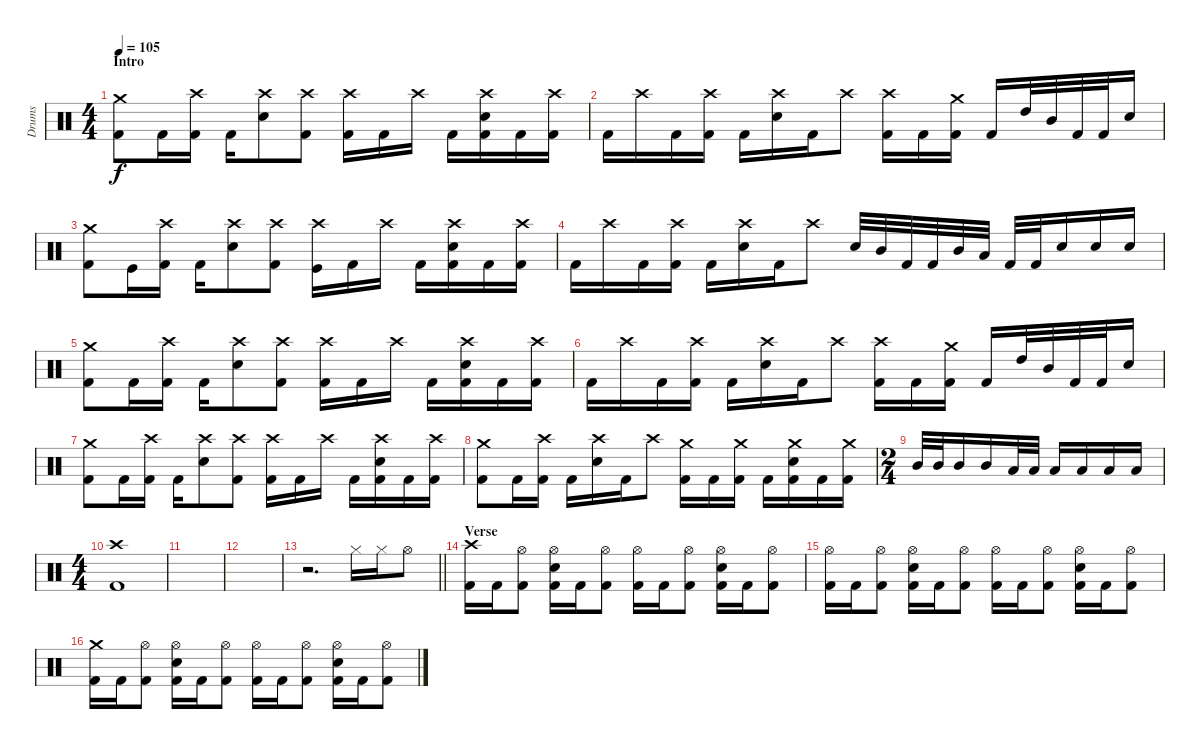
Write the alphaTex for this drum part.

\track ("Drums" "Drums") {instrument percussion}
\staff {score}
\articulation defaults
\ts (4 4)
\section ("" "Intro")
\tempo 105
\clef neutral
\ks c
("Crash medium (hit)" "Kick (hit) 2").8{dy f} "Kick (hit) 2".16 ("Crash high (hit)" "Kick (hit) 2").16 "Kick (hit) 2".16 ("Crash high (hit)" "Electric Snare (hit)").8 ("Crash high (hit)" "Kick (hit) 2").8 ("Crash high (hit)" "Kick (hit) 2").16 "Kick (hit) 2".16 "Crash high (hit)".16 "Kick (hit) 2".16 ("Crash high (hit)" "Electric Snare (hit)" "Kick (hit) 2").16 "Kick (hit) 2".16 ("Crash high (hit)" "Kick (hit) 2").16 |
"Kick (hit) 2".16 "Crash high (hit)".16 "Kick (hit) 2".16 ("Crash high (hit)" "Kick (hit) 2").16 "Kick (hit) 2".16 ("Crash high (hit)" "Electric Snare (hit)").16 "Kick (hit) 2".16 "Crash high (hit)".8 ("Crash high (hit)" "Kick (hit) 2").16 "Kick (hit) 2".16 ("Crash medium (hit)" "Kick (hit) 2").16 "Kick (hit) 2".16 "High Tom (hit)".32 "Mid Tom (hit)".32 "Kick (hit) 2".32 "Kick (hit) 2".32 "Electric Snare (hit)".16 |
("Crash medium (hit)" "Kick (hit) 2").8 "Kick (hit)".16 ("Crash high (hit)" "Kick (hit) 2").16 "Kick (hit) 2".16 ("Crash high (hit)" "Electric Snare (hit)").8 ("Crash high (hit)" "Kick (hit) 2").8 ("Crash high (hit)" "Kick (hit)").16 "Kick (hit) 2".16 "Crash high (hit)".16 "Kick (hit) 2".16 ("Crash high (hit)" "Electric Snare (hit)" "Kick (hit) 2").16 "Kick (hit) 2".16 ("Crash high (hit)" "Kick (hit) 2").16 |
"Kick (hit) 2".16 "Crash high (hit)".16 "Kick (hit) 2".16 ("Crash high (hit)" "Kick (hit) 2").16 "Kick (hit) 2".16 ("Crash high (hit)" "Electric Snare (hit)").16 "Kick (hit) 2".16 "Crash high (hit)".8 "Electric Snare (hit)".32 "Mid Tom (hit)".32 "Kick (hit) 2".32 "Kick (hit) 2".32 "Mid Tom (hit)".32 "Low Tom (hit)".32 "Kick (hit) 2".32 "Kick (hit) 2".32 "Electric Snare (hit)".16 "Electric Snare (hit)".16 "Electric Snare (hit)".16 |
("Crash medium (hit)" "Kick (hit) 2").8 "Kick (hit) 2".16 ("Crash high (hit)" "Kick (hit) 2").16 "Kick (hit) 2".16 ("Crash high (hit)" "Electric Snare (hit)").8 ("Crash high (hit)" "Kick (hit) 2").8 ("Crash high (hit)" "Kick (hit) 2").16 "Kick (hit) 2".16 "Crash high (hit)".16 "Kick (hit) 2".16 ("Crash high (hit)" "Electric Snare (hit)" "Kick (hit) 2").16 "Kick (hit) 2".16 ("Crash high (hit)" "Kick (hit) 2").16 |
"Kick (hit) 2".16 "Crash high (hit)".16 "Kick (hit) 2".16 ("Crash high (hit)" "Kick (hit) 2").16 "Kick (hit) 2".16 ("Crash high (hit)" "Electric Snare (hit)").16 "Kick (hit) 2".16 "Crash high (hit)".8 ("Crash high (hit)" "Kick (hit) 2").16 "Kick (hit) 2".16 ("Crash medium (hit)" "Kick (hit) 2").16 "Kick (hit) 2".16 "High Tom (hit)".32 "Mid Tom (hit)".32 "Kick (hit) 2".32 "Kick (hit) 2".32 "Electric Snare (hit)".16 |
("Crash medium (hit)" "Kick (hit) 2").8 "Kick (hit) 2".16 ("Crash high (hit)" "Kick (hit) 2").16 "Kick (hit) 2".16 ("Crash high (hit)" "Electric Snare (hit)").8 ("Crash high (hit)" "Kick (hit) 2").8 ("Crash high (hit)" "Kick (hit) 2").16 "Kick (hit) 2".16 "Crash high (hit)".16 "Kick (hit) 2".16 ("Crash high (hit)" "Electric Snare (hit)" "Kick (hit) 2").16 "Kick (hit) 2".16 ("Crash high (hit)" "Kick (hit) 2").16 |
("Crash medium (hit)" "Kick (hit) 2").8 "Kick (hit) 2".16 ("Crash high (hit)" "Kick (hit) 2").16 "Kick (hit) 2".16 ("Crash high (hit)" "Electric Snare (hit)").16 "Kick (hit) 2".16 "Crash high (hit)".8 ("Crash medium (hit)" "Kick (hit) 2").16 "Kick (hit) 2".16 ("Crash medium (hit)" "Kick (hit) 2").16 "Kick (hit) 2".16 ("Crash medium (hit)" "Electric Snare (hit)" "Kick (hit) 2").16 "Kick (hit) 2".16 ("Crash medium (hit)" "Kick (hit) 2").16 |
\ts (2 4)
"Mid Tom (hit)".32 "Mid Tom (hit)".32 "Mid Tom (hit)".16 "Mid Tom (hit)".16 "Low Tom (hit)".32 "Low Tom (hit)".32 "Low Tom (hit)".16 "Low Tom (hit)".16 "Low Tom (hit)".16 "Low Tom (hit)".16 |
\ts (4 4)
("Crash high (hit)" "Kick (hit) 2").1 |
|
|
\barLineRight lightlight
r.2{d} "Hi-Hat (closed)".16 "Hi-Hat (closed)".16 "Hi-Hat (open)".8 |
\section ("" "Verse")
("Crash high (hit)" "Kick (hit) 2").16 "Kick (hit) 2".16 ("Hi-Hat (open)" "Kick (hit) 2").8 ("Hi-Hat (open)" "Electric Snare (hit)" "Kick (hit) 2").16 "Kick (hit) 2".16 ("Hi-Hat (open)" "Kick (hit) 2").8 ("Hi-Hat (open)" "Kick (hit) 2").16 "Kick (hit) 2".16 ("Hi-Hat (open)" "Kick (hit) 2").8 ("Hi-Hat (open)" "Electric Snare (hit)" "Kick (hit) 2").16 "Kick (hit) 2".16 ("Hi-Hat (open)" "Kick (hit) 2").8 |
("Hi-Hat (open)" "Kick (hit) 2").16 "Kick (hit) 2".16 ("Hi-Hat (open)" "Kick (hit) 2").8 ("Hi-Hat (open)" "Electric Snare (hit)" "Kick (hit) 2").16 "Kick (hit) 2".16 ("Hi-Hat (open)" "Kick (hit) 2").8 ("Hi-Hat (open)" "Kick (hit) 2").16 "Kick (hit) 2".16 ("Hi-Hat (open)" "Kick (hit) 2").8 ("Hi-Hat (open)" "Electric Snare (hit)" "Kick (hit) 2").16 "Kick (hit) 2".16 ("Hi-Hat (open)" "Kick (hit) 2").8 |
("Crash medium (hit)" "Kick (hit) 2").16 "Kick (hit) 2".16 ("Hi-Hat (open)" "Kick (hit) 2").8 ("Hi-Hat (open)" "Electric Snare (hit)" "Kick (hit) 2").16 "Kick (hit) 2".16 ("Hi-Hat (open)" "Kick (hit) 2").8 ("Hi-Hat (open)" "Kick (hit) 2").16 "Kick (hit) 2".16 ("Hi-Hat (open)" "Kick (hit) 2").8 ("Hi-Hat (open)" "Electric Snare (hit)" "Kick (hit) 2").16 "Kick (hit) 2".16 ("Hi-Hat (open)" "Kick (hit) 2").8
